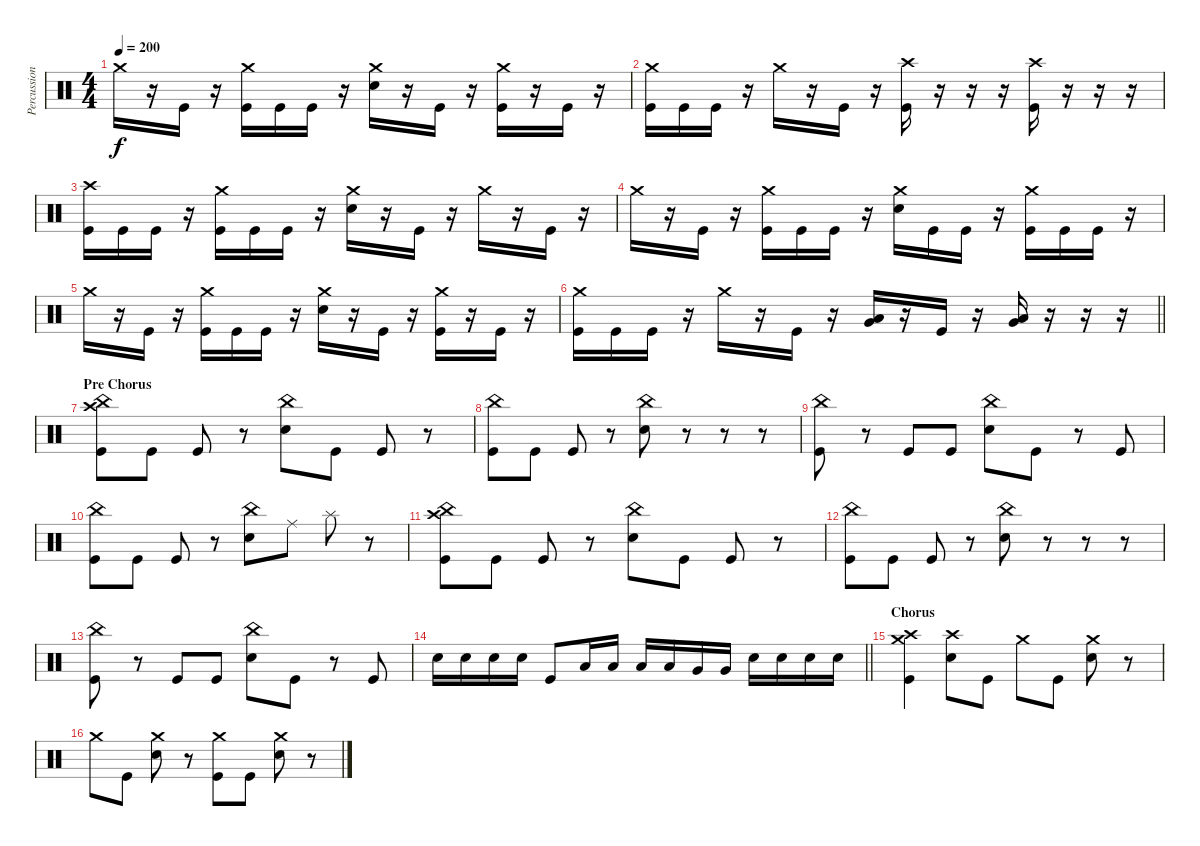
\track ("Percussion" "Percussion") {instrument percussion}
\staff {score}
\articulation defaults
\ts (4 4)
\tempo 200
\clef neutral
\ks c "Crash medium (hit)".16{dy f}
r.16 "Kick (hit)".16 r.16 ("Crash medium (hit)" "Kick (hit)").16 "Kick (hit)".16 "Kick (hit)".16 r.16 ("Snare (hit) 2" "Crash medium (hit)").16 r.16 "Kick (hit)".16 r.16 ("Crash medium (hit)" "Kick (hit)").16 r.16 "Kick (hit)".16 r.16 |
("Kick (hit)" "Crash medium (hit)").16 "Kick (hit)".16 "Kick (hit)".16 r.16 "Crash medium (hit)".16 r.16 "Kick (hit)".16 r.16 ("Crash high (hit)" "Kick (hit)").16 r.16 r.16 r.16 ("Crash high (hit)" "Kick (hit)").16 r.16 r.16 r.16 |
("Crash high (hit)" "Kick (hit)").16 "Kick (hit)".16 "Kick (hit)".16 r.16 ("Crash medium (hit)" "Kick (hit)").16 "Kick (hit)".16 "Kick (hit)".16 r.16 ("Snare (hit) 2" "Crash medium (hit)").16 r.16 "Kick (hit)".16 r.16 "Crash medium (hit)".16 r.16 "Kick (hit)".16 r.16 |
"Crash medium (hit)".16 r.16 "Kick (hit)".16 r.16 ("Crash medium (hit)" "Kick (hit)").16 "Kick (hit)".16 "Kick (hit)".16 r.16 ("Crash medium (hit)" "Snare (hit) 2").16 "Kick (hit)".16 "Kick (hit)".16 r.16 ("Crash medium (hit)" "Kick (hit)").16 "Kick (hit)".16 "Kick (hit)".16 r.16 |
"Crash medium (hit)".16 r.16 "Kick (hit)".16 r.16 ("Crash medium (hit)" "Kick (hit)").16 "Kick (hit)".16 "Kick (hit)".16 r.16 ("Snare (hit) 2" "Crash medium (hit)").16 r.16 "Kick (hit)".16 r.16 ("Crash medium (hit)" "Kick (hit)").16 r.16 "Kick (hit)".16 r.16 |
\barLineRight lightlight
("Kick (hit)" "Crash medium (hit)").16 "Kick (hit)".16 "Kick (hit)".16 r.16 "Crash medium (hit)".16 r.16 "Kick (hit)".16 r.16 ("Very Low Tom (hit)" "Low Floor Tom (hit)").16 r.16 "Kick (hit)".16 r.16 ("Very Low Tom (hit)" "Low Floor Tom (hit)").16 r.16 r.16 r.16 |
\section ("" "Pre Chorus")
("Crash high (hit)" "China (hit)" "Kick (hit)").8 "Kick (hit)".8 "Kick (hit)".8 r.8 ("China (hit)" "Snare (hit) 2").8 "Kick (hit)".8 "Kick (hit)".8 r.8 |
("China (hit)" "Kick (hit)").8 "Kick (hit)".8 "Kick (hit)".8 r.8 ("China (hit)" "Snare (hit) 2").8 r.8 r.8 r.8 |
("Kick (hit)" "China (hit)").8 r.8 "Kick (hit)".8 "Kick (hit)".8 ("China (hit)" "Snare (hit) 2").8 "Kick (hit)".8 r.8 "Kick (hit)".8 |
("China (hit)" "Kick (hit)").8 "Kick (hit)".8 "Kick (hit)".8 r.8 ("Snare (hit) 2" "China (hit)").8 "Ride (middle)".8 "Splash (hit)".8 r.8 |
("Crash high (hit)" "China (hit)" "Kick (hit)").8 "Kick (hit)".8 "Kick (hit)".8 r.8 ("China (hit)" "Snare (hit) 2").8 "Kick (hit)".8 "Kick (hit)".8 r.8 |
("China (hit)" "Kick (hit)").8 "Kick (hit)".8 "Kick (hit)".8 r.8 ("China (hit)" "Snare (hit) 2").8 r.8 r.8 r.8 |
("Kick (hit)" "China (hit)").8 r.8 "Kick (hit)".8 "Kick (hit)".8 ("China (hit)" "Snare (hit) 2").8 "Kick (hit)".8 r.8 "Kick (hit)".8 |
\barLineRight lightlight "Snare (hit) 2".16 "Snare (hit) 2".16 "Snare (hit) 2".16 "Snare (hit) 2".16 "Kick (hit)".8 "Low Tom (hit)".16 "Low Tom (hit)".16 "Low Tom (hit)".16 "Low Tom (hit)".16 "Very Low Tom (hit)".16 "Very Low Tom (hit)".16 "Snare (hit) 2".16 "Snare (hit) 2".16 "Snare (hit) 2".16 "Snare (hit) 2".16
|
\section ("" "Chorus")
("Kick (hit)" "Crash medium (hit)" "Crash high (hit)").4 ("Snare (hit) 2" "Crash high (hit)").8 "Kick (hit)".8 "Crash medium (hit)".8 "Kick (hit)".8 ("Crash medium (hit)" "Snare (hit) 2").8 r.8 |
"Crash medium (hit)".8 "Kick (hit)".8 ("Crash medium (hit)" "Snare (hit) 2").8 r.8 ("Kick (hit)" "Crash medium (hit)").8 "Kick (hit)".8 ("Snare (hit) 2" "Crash medium (hit)").8 r.8
